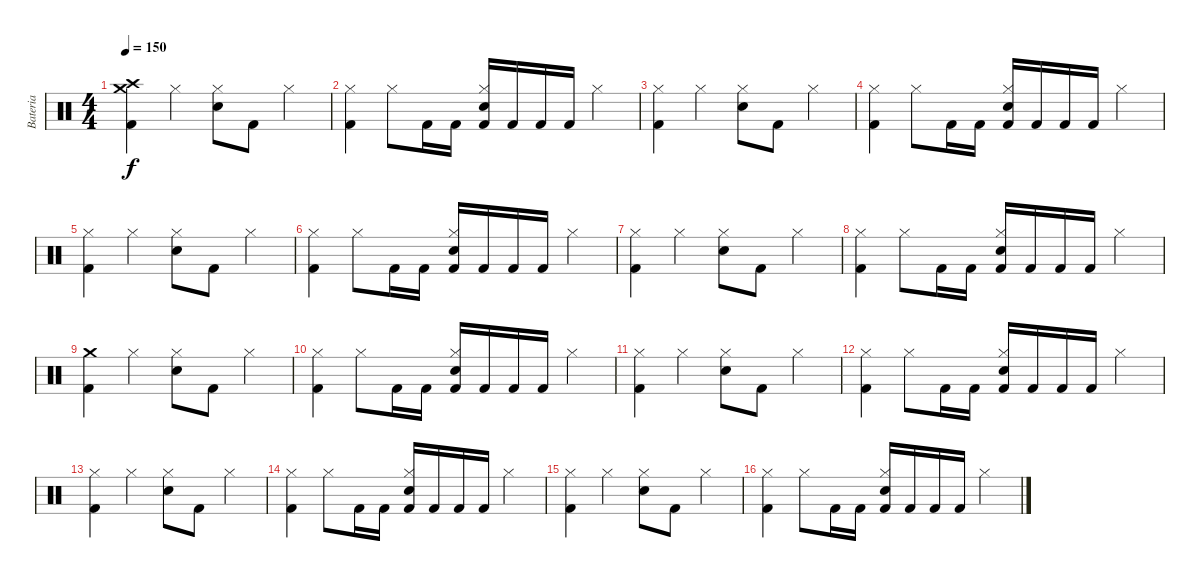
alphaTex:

\track ("Bateria" "Bateria") {instrument percussion}
\staff {score}
\articulation defaults
\ts (4 4)
\tempo 150
\clef neutral
\ks c
("Crash high (hit)" "Crash medium (hit)" "Kick (hit) 2").4{dy f} "Hi-Hat (closed)".4 ("Hi-Hat (closed)" "Snare (hit) 2").8 "Kick (hit) 2".8 "Hi-Hat (closed)".4 |
("Hi-Hat (closed)" "Kick (hit) 2").4 "Hi-Hat (closed)".8 "Kick (hit) 2".16 "Kick (hit) 2".16 ("Hi-Hat (closed)" "Snare (hit) 2" "Kick (hit) 2").16 "Kick (hit) 2".16 "Kick (hit) 2".16 "Kick (hit) 2".16 "Hi-Hat (closed)".4 |
("Hi-Hat (closed)" "Kick (hit) 2").4 "Hi-Hat (closed)".4 ("Hi-Hat (closed)" "Snare (hit) 2").8 "Kick (hit) 2".8 "Hi-Hat (closed)".4 |
("Hi-Hat (closed)" "Kick (hit) 2").4 "Hi-Hat (closed)".8 "Kick (hit) 2".16 "Kick (hit) 2".16 ("Hi-Hat (closed)" "Snare (hit) 2" "Kick (hit) 2").16 "Kick (hit) 2".16 "Kick (hit) 2".16 "Kick (hit) 2".16 "Hi-Hat (closed)".4 |
("Hi-Hat (closed)" "Kick (hit) 2").4 "Hi-Hat (closed)".4 ("Hi-Hat (closed)" "Snare (hit) 2").8 "Kick (hit) 2".8 "Hi-Hat (closed)".4 |
("Hi-Hat (closed)" "Kick (hit) 2").4 "Hi-Hat (closed)".8 "Kick (hit) 2".16 "Kick (hit) 2".16 ("Hi-Hat (closed)" "Snare (hit) 2" "Kick (hit) 2").16 "Kick (hit) 2".16 "Kick (hit) 2".16 "Kick (hit) 2".16 "Hi-Hat (closed)".4 |
("Hi-Hat (closed)" "Kick (hit) 2").4 "Hi-Hat (closed)".4 ("Hi-Hat (closed)" "Snare (hit) 2").8 "Kick (hit) 2".8 "Hi-Hat (closed)".4 |
("Hi-Hat (closed)" "Kick (hit) 2").4 "Hi-Hat (closed)".8 "Kick (hit) 2".16 "Kick (hit) 2".16 ("Hi-Hat (closed)" "Snare (hit) 2" "Kick (hit) 2").16 "Kick (hit) 2".16 "Kick (hit) 2".16 "Kick (hit) 2".16 "Hi-Hat (closed)".4 |
("Crash medium (hit)" "Kick (hit) 2").4 "Hi-Hat (closed)".4 ("Hi-Hat (closed)" "Snare (hit) 2").8 "Kick (hit) 2".8 "Hi-Hat (closed)".4 |
("Hi-Hat (closed)" "Kick (hit) 2").4 "Hi-Hat (closed)".8 "Kick (hit) 2".16 "Kick (hit) 2".16 ("Hi-Hat (closed)" "Snare (hit) 2" "Kick (hit) 2").16 "Kick (hit) 2".16 "Kick (hit) 2".16 "Kick (hit) 2".16 "Hi-Hat (closed)".4 |
("Hi-Hat (closed)" "Kick (hit) 2").4 "Hi-Hat (closed)".4 ("Hi-Hat (closed)" "Snare (hit) 2").8 "Kick (hit) 2".8 "Hi-Hat (closed)".4 |
("Hi-Hat (closed)" "Kick (hit) 2").4 "Hi-Hat (closed)".8 "Kick (hit) 2".16 "Kick (hit) 2".16 ("Hi-Hat (closed)" "Snare (hit) 2" "Kick (hit) 2").16 "Kick (hit) 2".16 "Kick (hit) 2".16 "Kick (hit) 2".16 "Hi-Hat (closed)".4 |
("Hi-Hat (closed)" "Kick (hit) 2").4 "Hi-Hat (closed)".4 ("Hi-Hat (closed)" "Snare (hit) 2").8 "Kick (hit) 2".8 "Hi-Hat (closed)".4 |
("Hi-Hat (closed)" "Kick (hit) 2").4 "Hi-Hat (closed)".8 "Kick (hit) 2".16 "Kick (hit) 2".16 ("Hi-Hat (closed)" "Snare (hit) 2" "Kick (hit) 2").16 "Kick (hit) 2".16 "Kick (hit) 2".16 "Kick (hit) 2".16 "Hi-Hat (closed)".4 |
("Hi-Hat (closed)" "Kick (hit) 2").4 "Hi-Hat (closed)".4 ("Hi-Hat (closed)" "Snare (hit) 2").8 "Kick (hit) 2".8 "Hi-Hat (closed)".4 |
("Hi-Hat (closed)" "Kick (hit) 2").4 "Hi-Hat (closed)".8 "Kick (hit) 2".16 "Kick (hit) 2".16 ("Hi-Hat (closed)" "Snare (hit) 2" "Kick (hit) 2").16 "Kick (hit) 2".16 "Kick (hit) 2".16 "Kick (hit) 2".16 "Hi-Hat (closed)".4
